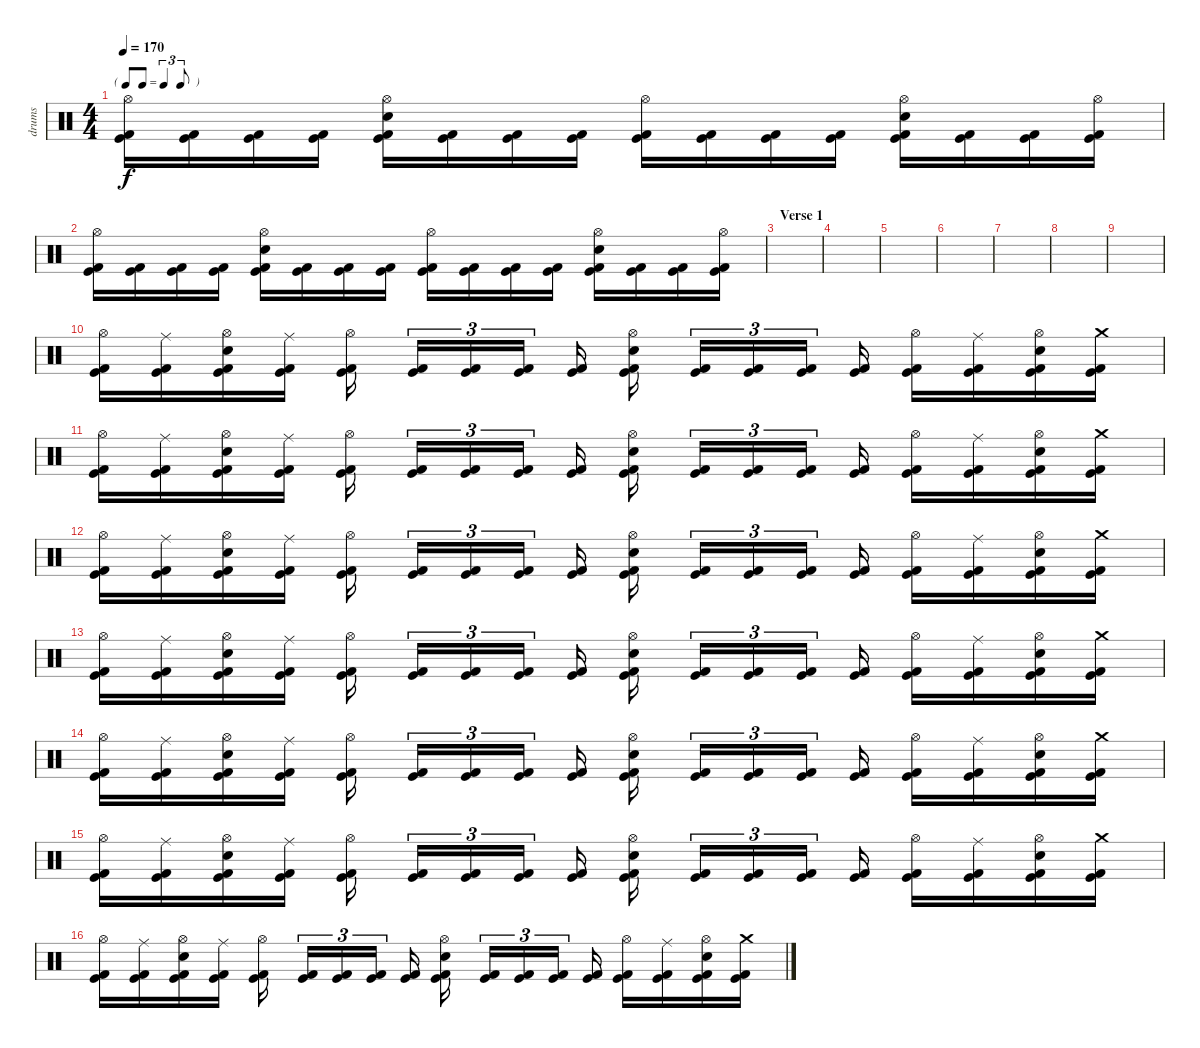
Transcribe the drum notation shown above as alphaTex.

\track ("drums" "drums") {instrument percussion}
\staff {score}
\articulation defaults
\ts (4 4)
\tf triplet8th
\tempo 170
\clef neutral
\ks c
("Hi-Hat (open)" "Kick (hit)" "Kick (hit) 2").16{dy f} ("Kick (hit)" "Kick (hit) 2").16 ("Kick (hit)" "Kick (hit) 2").16 ("Kick (hit)" "Kick (hit) 2").16 ("Hi-Hat (open)" "Snare (hit) 2" "Kick (hit)" "Kick (hit) 2").16 ("Kick (hit)" "Kick (hit) 2").16 ("Kick (hit)" "Kick (hit) 2").16 ("Kick (hit)" "Kick (hit) 2").16 ("Hi-Hat (open)" "Kick (hit)" "Kick (hit) 2").16 ("Kick (hit)" "Kick (hit) 2").16 ("Kick (hit)" "Kick (hit) 2").16 ("Kick (hit)" "Kick (hit) 2").16 ("Hi-Hat (open)" "Snare (hit) 2" "Kick (hit)" "Kick (hit) 2").16 ("Kick (hit)" "Kick (hit) 2").16 ("Kick (hit)" "Kick (hit) 2").16 ("Hi-Hat (open)" "Kick (hit)" "Kick (hit) 2").16 |
("Hi-Hat (open)" "Kick (hit)" "Kick (hit) 2").16 ("Kick (hit)" "Kick (hit) 2").16 ("Kick (hit)" "Kick (hit) 2").16 ("Kick (hit)" "Kick (hit) 2").16 ("Hi-Hat (open)" "Snare (hit) 2" "Kick (hit)" "Kick (hit) 2").16 ("Kick (hit)" "Kick (hit) 2").16 ("Kick (hit)" "Kick (hit) 2").16 ("Kick (hit)" "Kick (hit) 2").16 ("Hi-Hat (open)" "Kick (hit)" "Kick (hit) 2").16 ("Kick (hit)" "Kick (hit) 2").16 ("Kick (hit)" "Kick (hit) 2").16 ("Kick (hit)" "Kick (hit) 2").16 ("Hi-Hat (open)" "Snare (hit) 2" "Kick (hit)" "Kick (hit) 2").16 ("Kick (hit)" "Kick (hit) 2").16 ("Kick (hit)" "Kick (hit) 2").16 ("Hi-Hat (open)" "Kick (hit)" "Kick (hit) 2").16 |
\section ("" "Verse 1")
|
|
|
|
|
|
|
("Hi-Hat (open)" "Kick (hit)" "Kick (hit) 2").16 ("Ride (middle)" "Kick (hit)" "Kick (hit) 2").16 ("Hi-Hat (open)" "Snare (hit) 2" "Kick (hit)" "Kick (hit) 2").16 ("Ride (middle)" "Kick (hit)" "Kick (hit) 2").16 ("Hi-Hat (open)" "Kick (hit)" "Kick (hit) 2").16 ("Kick (hit)" "Kick (hit) 2").16{tu (3 2)} ("Kick (hit)" "Kick (hit) 2").16{tu (3 2)} ("Kick (hit)" "Kick (hit) 2").16{tu (3 2)} ("Kick (hit)" "Kick (hit) 2").16 ("Hi-Hat (open)" "Snare (hit) 2" "Kick (hit)" "Kick (hit) 2").16 ("Kick (hit)" "Kick (hit) 2").16{tu (3 2)} ("Kick (hit)" "Kick (hit) 2").16{tu (3 2)} ("Kick (hit)" "Kick (hit) 2").16{tu (3 2)} ("Kick (hit)" "Kick (hit) 2").16 ("Hi-Hat (open)" "Kick (hit)" "Kick (hit) 2").16 ("Ride (middle)" "Kick (hit)" "Kick (hit) 2").16 ("Hi-Hat (open)" "Snare (hit) 2" "Kick (hit)" "Kick (hit) 2").16 ("Crash medium (hit)" "Kick (hit)" "Kick (hit) 2").16 |
("Hi-Hat (open)" "Kick (hit)" "Kick (hit) 2").16 ("Ride (middle)" "Kick (hit)" "Kick (hit) 2").16 ("Hi-Hat (open)" "Snare (hit) 2" "Kick (hit)" "Kick (hit) 2").16 ("Ride (middle)" "Kick (hit)" "Kick (hit) 2").16 ("Hi-Hat (open)" "Kick (hit)" "Kick (hit) 2").16 ("Kick (hit)" "Kick (hit) 2").16{tu (3 2)} ("Kick (hit)" "Kick (hit) 2").16{tu (3 2)} ("Kick (hit)" "Kick (hit) 2").16{tu (3 2)} ("Kick (hit)" "Kick (hit) 2").16 ("Hi-Hat (open)" "Snare (hit) 2" "Kick (hit)" "Kick (hit) 2").16 ("Kick (hit)" "Kick (hit) 2").16{tu (3 2)} ("Kick (hit)" "Kick (hit) 2").16{tu (3 2)} ("Kick (hit)" "Kick (hit) 2").16{tu (3 2)} ("Kick (hit)" "Kick (hit) 2").16 ("Hi-Hat (open)" "Kick (hit)" "Kick (hit) 2").16 ("Ride (middle)" "Kick (hit)" "Kick (hit) 2").16 ("Hi-Hat (open)" "Snare (hit) 2" "Kick (hit)" "Kick (hit) 2").16 ("Crash medium (hit)" "Kick (hit)" "Kick (hit) 2").16 |
("Hi-Hat (open)" "Kick (hit)" "Kick (hit) 2").16 ("Ride (middle)" "Kick (hit)" "Kick (hit) 2").16 ("Hi-Hat (open)" "Snare (hit) 2" "Kick (hit)" "Kick (hit) 2").16 ("Ride (middle)" "Kick (hit)" "Kick (hit) 2").16 ("Hi-Hat (open)" "Kick (hit)" "Kick (hit) 2").16 ("Kick (hit)" "Kick (hit) 2").16{tu (3 2)} ("Kick (hit)" "Kick (hit) 2").16{tu (3 2)} ("Kick (hit)" "Kick (hit) 2").16{tu (3 2)} ("Kick (hit)" "Kick (hit) 2").16 ("Hi-Hat (open)" "Snare (hit) 2" "Kick (hit)" "Kick (hit) 2").16 ("Kick (hit)" "Kick (hit) 2").16{tu (3 2)} ("Kick (hit)" "Kick (hit) 2").16{tu (3 2)} ("Kick (hit)" "Kick (hit) 2").16{tu (3 2)} ("Kick (hit)" "Kick (hit) 2").16 ("Hi-Hat (open)" "Kick (hit)" "Kick (hit) 2").16 ("Ride (middle)" "Kick (hit)" "Kick (hit) 2").16 ("Hi-Hat (open)" "Snare (hit) 2" "Kick (hit)" "Kick (hit) 2").16 ("Crash medium (hit)" "Kick (hit)" "Kick (hit) 2").16 |
("Hi-Hat (open)" "Kick (hit)" "Kick (hit) 2").16 ("Ride (middle)" "Kick (hit)" "Kick (hit) 2").16 ("Hi-Hat (open)" "Snare (hit) 2" "Kick (hit)" "Kick (hit) 2").16 ("Ride (middle)" "Kick (hit)" "Kick (hit) 2").16 ("Hi-Hat (open)" "Kick (hit)" "Kick (hit) 2").16 ("Kick (hit)" "Kick (hit) 2").16{tu (3 2)} ("Kick (hit)" "Kick (hit) 2").16{tu (3 2)} ("Kick (hit)" "Kick (hit) 2").16{tu (3 2)} ("Kick (hit)" "Kick (hit) 2").16 ("Hi-Hat (open)" "Snare (hit) 2" "Kick (hit)" "Kick (hit) 2").16 ("Kick (hit)" "Kick (hit) 2").16{tu (3 2)} ("Kick (hit)" "Kick (hit) 2").16{tu (3 2)} ("Kick (hit)" "Kick (hit) 2").16{tu (3 2)} ("Kick (hit)" "Kick (hit) 2").16 ("Hi-Hat (open)" "Kick (hit)" "Kick (hit) 2").16 ("Ride (middle)" "Kick (hit)" "Kick (hit) 2").16 ("Hi-Hat (open)" "Snare (hit) 2" "Kick (hit)" "Kick (hit) 2").16 ("Crash medium (hit)" "Kick (hit)" "Kick (hit) 2").16 |
("Hi-Hat (open)" "Kick (hit)" "Kick (hit) 2").16 ("Ride (middle)" "Kick (hit)" "Kick (hit) 2").16 ("Hi-Hat (open)" "Snare (hit) 2" "Kick (hit)" "Kick (hit) 2").16 ("Ride (middle)" "Kick (hit)" "Kick (hit) 2").16 ("Hi-Hat (open)" "Kick (hit)" "Kick (hit) 2").16 ("Kick (hit)" "Kick (hit) 2").16{tu (3 2)} ("Kick (hit)" "Kick (hit) 2").16{tu (3 2)} ("Kick (hit)" "Kick (hit) 2").16{tu (3 2)} ("Kick (hit)" "Kick (hit) 2").16 ("Hi-Hat (open)" "Snare (hit) 2" "Kick (hit)" "Kick (hit) 2").16 ("Kick (hit)" "Kick (hit) 2").16{tu (3 2)} ("Kick (hit)" "Kick (hit) 2").16{tu (3 2)} ("Kick (hit)" "Kick (hit) 2").16{tu (3 2)} ("Kick (hit)" "Kick (hit) 2").16 ("Hi-Hat (open)" "Kick (hit)" "Kick (hit) 2").16 ("Ride (middle)" "Kick (hit)" "Kick (hit) 2").16 ("Hi-Hat (open)" "Snare (hit) 2" "Kick (hit)" "Kick (hit) 2").16 ("Crash medium (hit)" "Kick (hit)" "Kick (hit) 2").16 |
("Hi-Hat (open)" "Kick (hit)" "Kick (hit) 2").16 ("Ride (middle)" "Kick (hit)" "Kick (hit) 2").16 ("Hi-Hat (open)" "Snare (hit) 2" "Kick (hit)" "Kick (hit) 2").16 ("Ride (middle)" "Kick (hit)" "Kick (hit) 2").16 ("Hi-Hat (open)" "Kick (hit)" "Kick (hit) 2").16 ("Kick (hit)" "Kick (hit) 2").16{tu (3 2)} ("Kick (hit)" "Kick (hit) 2").16{tu (3 2)} ("Kick (hit)" "Kick (hit) 2").16{tu (3 2)} ("Kick (hit)" "Kick (hit) 2").16 ("Hi-Hat (open)" "Snare (hit) 2" "Kick (hit)" "Kick (hit) 2").16 ("Kick (hit)" "Kick (hit) 2").16{tu (3 2)} ("Kick (hit)" "Kick (hit) 2").16{tu (3 2)} ("Kick (hit)" "Kick (hit) 2").16{tu (3 2)} ("Kick (hit)" "Kick (hit) 2").16 ("Hi-Hat (open)" "Kick (hit)" "Kick (hit) 2").16 ("Ride (middle)" "Kick (hit)" "Kick (hit) 2").16 ("Hi-Hat (open)" "Snare (hit) 2" "Kick (hit)" "Kick (hit) 2").16 ("Crash medium (hit)" "Kick (hit)" "Kick (hit) 2").16 |
("Hi-Hat (open)" "Kick (hit)" "Kick (hit) 2").16 ("Ride (middle)" "Kick (hit)" "Kick (hit) 2").16 ("Hi-Hat (open)" "Snare (hit) 2" "Kick (hit)" "Kick (hit) 2").16 ("Ride (middle)" "Kick (hit)" "Kick (hit) 2").16 ("Hi-Hat (open)" "Kick (hit)" "Kick (hit) 2").16 ("Kick (hit)" "Kick (hit) 2").16{tu (3 2)} ("Kick (hit)" "Kick (hit) 2").16{tu (3 2)} ("Kick (hit)" "Kick (hit) 2").16{tu (3 2)} ("Kick (hit)" "Kick (hit) 2").16 ("Hi-Hat (open)" "Snare (hit) 2" "Kick (hit)" "Kick (hit) 2").16 ("Kick (hit)" "Kick (hit) 2").16{tu (3 2)} ("Kick (hit)" "Kick (hit) 2").16{tu (3 2)} ("Kick (hit)" "Kick (hit) 2").16{tu (3 2)} ("Kick (hit)" "Kick (hit) 2").16 ("Hi-Hat (open)" "Kick (hit)" "Kick (hit) 2").16 ("Ride (middle)" "Kick (hit)" "Kick (hit) 2").16 ("Hi-Hat (open)" "Snare (hit) 2" "Kick (hit)" "Kick (hit) 2").16 ("Crash medium (hit)" "Kick (hit)" "Kick (hit) 2").16
